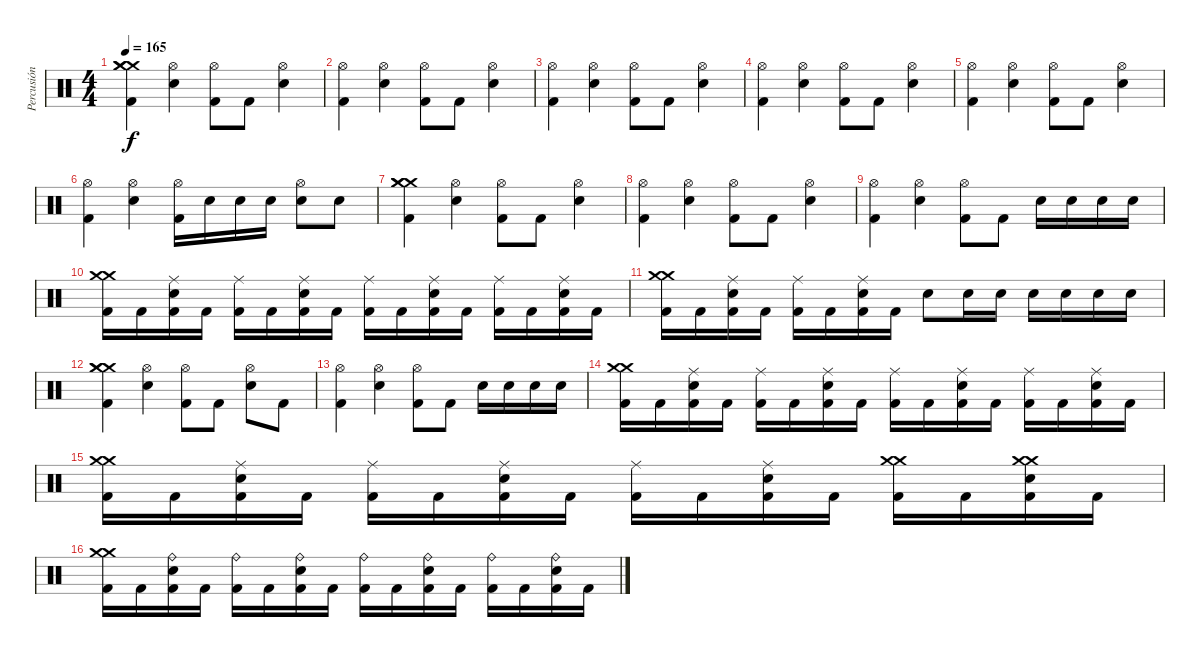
\track ("Percusión" "Percusión") {instrument percussion}
\staff {score}
\articulation defaults
\ts (4 4)
\tempo 165
\clef neutral
\ks c
("Crash medium (hit)" "Crash medium (hit)" "Crash medium (hit)" "Kick (hit) 2").4{dy f} ("Hi-Hat (open)" "Snare (hit) 2").4 ("Hi-Hat (open)" "Kick (hit) 2").8 "Kick (hit) 2".8 ("Hi-Hat (open)" "Snare (hit) 2").4 |
("Hi-Hat (open)" "Kick (hit) 2").4 ("Hi-Hat (open)" "Snare (hit) 2").4 ("Hi-Hat (open)" "Kick (hit) 2").8 "Kick (hit) 2".8 ("Hi-Hat (open)" "Snare (hit) 2").4 |
("Hi-Hat (open)" "Kick (hit) 2").4 ("Hi-Hat (open)" "Snare (hit) 2").4 ("Hi-Hat (open)" "Kick (hit) 2").8 "Kick (hit) 2".8 ("Hi-Hat (open)" "Snare (hit) 2").4 |
("Hi-Hat (open)" "Kick (hit) 2").4 ("Hi-Hat (open)" "Snare (hit) 2").4 ("Hi-Hat (open)" "Kick (hit) 2").8 "Kick (hit) 2".8 ("Hi-Hat (open)" "Snare (hit) 2").4 |
("Hi-Hat (open)" "Kick (hit) 2").4 ("Hi-Hat (open)" "Snare (hit) 2").4 ("Hi-Hat (open)" "Kick (hit) 2").8 "Kick (hit) 2".8 ("Hi-Hat (open)" "Snare (hit) 2").4 |
("Hi-Hat (open)" "Kick (hit) 2").4 ("Hi-Hat (open)" "Snare (hit) 2").4 ("Hi-Hat (open)" "Kick (hit) 2").16 "Snare (hit) 2".16 "Snare (hit) 2".16 "Snare (hit) 2".16 ("Hi-Hat (open)" "Snare (hit) 2").8 "Snare (hit) 2".8 |
("Crash medium (hit)" "Crash medium (hit)" "Crash medium (hit)" "Kick (hit) 2").4 ("Hi-Hat (open)" "Snare (hit) 2").4 ("Hi-Hat (open)" "Kick (hit) 2").8 "Kick (hit) 2".8 ("Hi-Hat (open)" "Snare (hit) 2").4 |
("Hi-Hat (open)" "Kick (hit) 2").4 ("Hi-Hat (open)" "Snare (hit) 2").4 ("Hi-Hat (open)" "Kick (hit) 2").8 "Kick (hit) 2".8 ("Hi-Hat (open)" "Snare (hit) 2").4 |
("Hi-Hat (open)" "Kick (hit) 2").4 ("Hi-Hat (open)" "Snare (hit) 2").4 ("Hi-Hat (open)" "Kick (hit) 2").8 "Kick (hit) 2".8 "Snare (hit) 2".16 "Snare (hit) 2".16 "Snare (hit) 2".16 "Snare (hit) 2".16 |
("Crash medium (hit)" "Crash medium (hit)" "Kick (hit) 2").16 "Kick (hit) 2".16 ("Ride (middle)" "Snare (hit) 2" "Kick (hit) 2").16 "Kick (hit) 2".16 ("Ride (middle)" "Kick (hit) 2").16 "Kick (hit) 2".16 ("Ride (middle)" "Snare (hit) 2" "Kick (hit) 2").16 "Kick (hit) 2".16 ("Ride (middle)" "Kick (hit) 2").16 "Kick (hit) 2".16 ("Ride (middle)" "Snare (hit) 2" "Kick (hit) 2").16 "Kick (hit) 2".16 ("Ride (middle)" "Kick (hit) 2").16 "Kick (hit) 2".16 ("Ride (middle)" "Snare (hit) 2" "Kick (hit) 2").16 "Kick (hit) 2".16 |
("Crash medium (hit)" "Crash medium (hit)" "Kick (hit) 2").16 "Kick (hit) 2".16 ("Ride (middle)" "Snare (hit) 2" "Kick (hit) 2").16 "Kick (hit) 2".16 ("Ride (middle)" "Kick (hit) 2").16 "Kick (hit) 2".16 ("Ride (middle)" "Snare (hit) 2" "Kick (hit) 2").16 "Kick (hit) 2".16 "Snare (hit) 2".8 "Snare (hit) 2".16 "Snare (hit) 2".16 "Snare (hit) 2".16 "Snare (hit) 2".16 "Snare (hit) 2".16 "Snare (hit) 2".16 |
("Crash medium (hit)" "Crash medium (hit)" "Crash medium (hit)" "Kick (hit) 2").4 ("Hi-Hat (open)" "Snare (hit) 2").4 ("Hi-Hat (open)" "Kick (hit) 2").8 "Kick (hit) 2".8 ("Hi-Hat (open)" "Snare (hit) 2").8 "Kick (hit) 2".8 |
("Hi-Hat (open)" "Kick (hit) 2").4 ("Hi-Hat (open)" "Snare (hit) 2").4 ("Hi-Hat (open)" "Kick (hit) 2").8 "Kick (hit) 2".8 "Snare (hit) 2".16 "Snare (hit) 2".16 "Snare (hit) 2".16 "Snare (hit) 2".16 |
("Crash medium (hit)" "Crash medium (hit)" "Kick (hit) 2").16 "Kick (hit) 2".16 ("Ride (middle)" "Snare (hit) 2" "Kick (hit) 2").16 "Kick (hit) 2".16 ("Ride (middle)" "Kick (hit) 2").16 "Kick (hit) 2".16 ("Ride (middle)" "Snare (hit) 2" "Kick (hit) 2").16 "Kick (hit) 2".16 ("Ride (middle)" "Kick (hit) 2").16 "Kick (hit) 2".16 ("Ride (middle)" "Snare (hit) 2" "Kick (hit) 2").16 "Kick (hit) 2".16 ("Ride (middle)" "Kick (hit) 2").16 "Kick (hit) 2".16 ("Ride (middle)" "Snare (hit) 2" "Kick (hit) 2").16 "Kick (hit) 2".16 |
("Crash medium (hit)" "Crash medium (hit)" "Kick (hit) 2").16 "Kick (hit) 2".16 ("Ride (middle)" "Snare (hit) 2" "Kick (hit) 2").16 "Kick (hit) 2".16 ("Ride (middle)" "Kick (hit) 2").16 "Kick (hit) 2".16 ("Ride (middle)" "Snare (hit) 2" "Kick (hit) 2").16 "Kick (hit) 2".16 ("Ride (middle)" "Kick (hit) 2").16 "Kick (hit) 2".16 ("Ride (middle)" "Snare (hit) 2" "Kick (hit) 2").16 "Kick (hit) 2".16 ("Crash medium (hit)" "Crash medium (hit)" "Kick (hit) 2").16 "Kick (hit) 2".16 ("Crash medium (hit)" "Crash medium (hit)" "Snare (hit) 2" "Kick (hit) 2").16 "Kick (hit) 2".16 |
("Crash medium (hit)" "Crash medium (hit)" "Kick (hit) 2").16 "Kick (hit) 2".16 ("Ride (bell)" "Snare (hit) 2" "Kick (hit) 2").16 "Kick (hit) 2".16 ("Ride (bell)" "Kick (hit) 2").16 "Kick (hit) 2".16 ("Ride (bell)" "Snare (hit) 2" "Kick (hit) 2").16 "Kick (hit) 2".16 ("Ride (bell)" "Kick (hit) 2").16 "Kick (hit) 2".16 ("Ride (bell)" "Snare (hit) 2" "Kick (hit) 2").16 "Kick (hit) 2".16 ("Ride (bell)" "Kick (hit) 2").16 "Kick (hit) 2".16 ("Ride (bell)" "Snare (hit) 2" "Kick (hit) 2").16 "Kick (hit) 2".16
